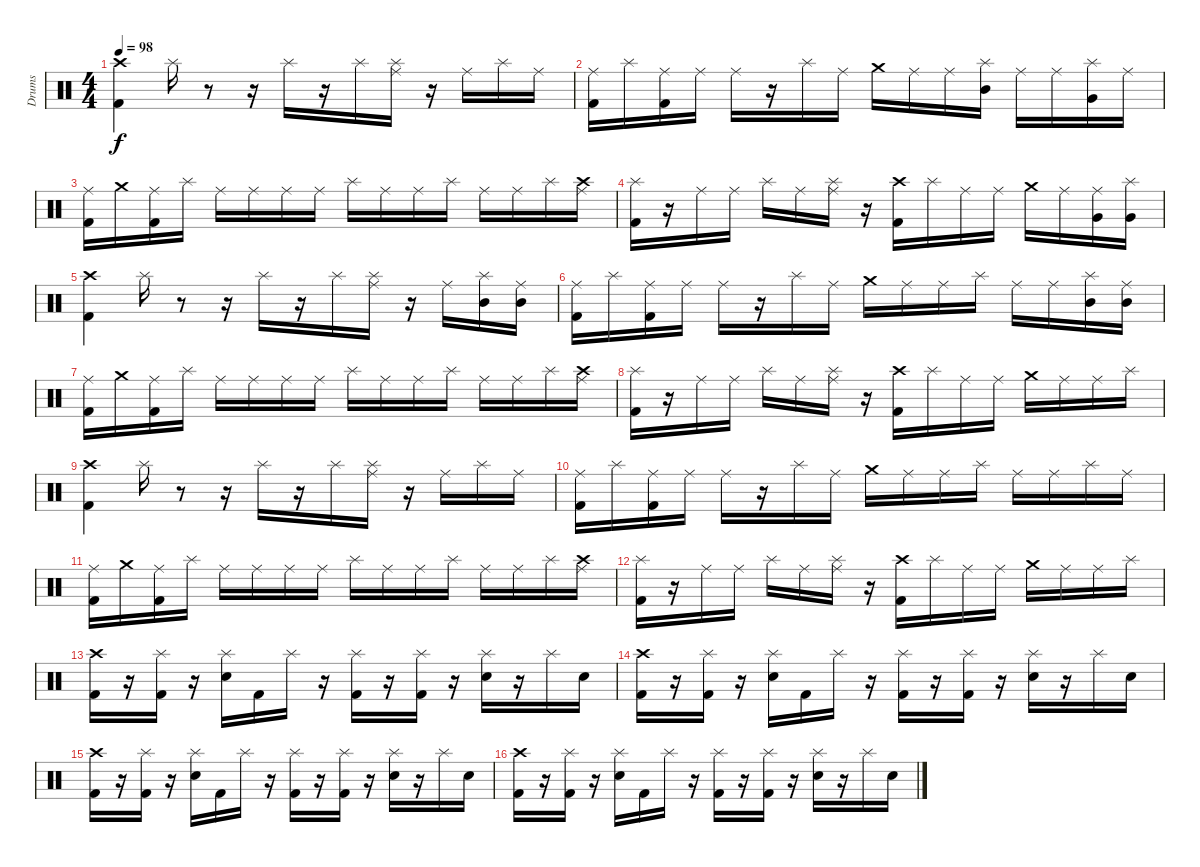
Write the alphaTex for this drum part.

\track ("Drums" "Drums") {instrument percussion}
\staff {score}
\articulation defaults
\ts (4 4)
\tempo 98
\clef neutral
\ks c
("Crash high (hit)" "Kick (hit) 2").4{dy f} "Splash (hit)".16 r.8 r.16 "Splash (hit)".16 r.16 "Splash (hit)".16 ("Ride (middle)" "Splash (hit)").16 r.16 "Ride (middle)".16 "Splash (hit)".16 "Ride (middle)".16 |
("Ride (middle)" "Kick (hit) 2").16 "Splash (hit)".16 ("Ride (middle)" "Kick (hit) 2").16 "Ride (middle)".16 "Ride (middle)".16 r.16 "Splash (hit)".16 "Ride (middle)".16 "Crash medium (hit)".16 "Ride (middle)".16 "Ride (middle)".16 ("Mid Tom (hit)" "Splash (hit)").16 "Ride (middle)".16 "Ride (middle)".16 ("Very Low Tom (hit)" "Splash (hit)").16 "Ride (middle)".16 |
("Ride (middle)" "Kick (hit) 2").16 "Crash medium (hit)".16 ("Ride (middle)" "Kick (hit) 2").16 "Splash (hit)".16 "Ride (middle)".16 "Ride (middle)".16 "Ride (middle)".16 "Ride (middle)".16 "Splash (hit)".16 "Ride (middle)".16 "Ride (middle)".16 "Splash (hit)".16 "Ride (middle)".16 "Ride (middle)".16 "Splash (hit)".16 ("Ride (middle)" "Crash high (hit)").16 |
("Splash (hit)" "Kick (hit) 2").16 r.16 "Ride (middle)".16 "Ride (middle)".16 "Splash (hit)".16 "Ride (middle)".16 ("Splash (hit)" "Ride (middle)").16 r.16 ("Crash high (hit)" "Kick (hit) 2").16 "Splash (hit)".16 "Ride (middle)".16 "Ride (middle)".16 "Crash medium (hit)".16 "Ride (middle)".16 ("Very Low Tom (hit)" "Ride (middle)").16 ("Very Low Tom (hit)" "Splash (hit)").16 |
("Crash high (hit)" "Kick (hit) 2").4 "Splash (hit)".16 r.8 r.16 "Splash (hit)".16 r.16 "Splash (hit)".16 ("Ride (middle)" "Splash (hit)").16 r.16 "Ride (middle)".16 ("Mid Tom (hit)" "Splash (hit)").16 ("Mid Tom (hit)" "Ride (middle)").16 |
("Ride (middle)" "Kick (hit) 2").16 "Splash (hit)".16 ("Ride (middle)" "Kick (hit) 2").16 "Ride (middle)".16 "Ride (middle)".16 r.16 "Splash (hit)".16 "Ride (middle)".16 "Crash medium (hit)".16 "Ride (middle)".16 "Ride (middle)".16 "Splash (hit)".16 "Ride (middle)".16 "Ride (middle)".16 ("Mid Tom (hit)" "Splash (hit)").16 ("Mid Tom (hit)" "Ride (middle)").16 |
("Ride (middle)" "Kick (hit) 2").16 "Crash medium (hit)".16 ("Ride (middle)" "Kick (hit) 2").16 "Splash (hit)".16 "Ride (middle)".16 "Ride (middle)".16 "Ride (middle)".16 "Ride (middle)".16 "Splash (hit)".16 "Ride (middle)".16 "Ride (middle)".16 "Splash (hit)".16 "Ride (middle)".16 "Ride (middle)".16 "Splash (hit)".16 ("Ride (middle)" "Crash high (hit)").16 |
("Splash (hit)" "Kick (hit) 2").16 r.16 "Ride (middle)".16 "Ride (middle)".16 "Splash (hit)".16 "Ride (middle)".16 ("Splash (hit)" "Ride (middle)").16 r.16 ("Crash high (hit)" "Kick (hit) 2").16 "Splash (hit)".16 "Ride (middle)".16 "Ride (middle)".16 "Crash medium (hit)".16 "Ride (middle)".16 "Ride (middle)".16 "Splash (hit)".16 |
("Crash high (hit)" "Kick (hit) 2").4 "Splash (hit)".16 r.8 r.16 "Splash (hit)".16 r.16 "Splash (hit)".16 ("Ride (middle)" "Splash (hit)").16 r.16 "Ride (middle)".16 "Splash (hit)".16 "Ride (middle)".16 |
("Ride (middle)" "Kick (hit) 2").16 "Splash (hit)".16 ("Ride (middle)" "Kick (hit) 2").16 "Ride (middle)".16 "Ride (middle)".16 r.16 "Splash (hit)".16 "Ride (middle)".16 "Crash medium (hit)".16 "Ride (middle)".16 "Ride (middle)".16 "Splash (hit)".16 "Ride (middle)".16 "Ride (middle)".16 "Splash (hit)".16 "Ride (middle)".16 |
("Ride (middle)" "Kick (hit) 2").16 "Crash medium (hit)".16 ("Ride (middle)" "Kick (hit) 2").16 "Splash (hit)".16 "Ride (middle)".16 "Ride (middle)".16 "Ride (middle)".16 "Ride (middle)".16 "Splash (hit)".16 "Ride (middle)".16 "Ride (middle)".16 "Splash (hit)".16 "Ride (middle)".16 "Ride (middle)".16 "Splash (hit)".16 ("Ride (middle)" "Crash high (hit)").16 |
("Splash (hit)" "Kick (hit) 2").16 r.16 "Ride (middle)".16 "Ride (middle)".16 "Splash (hit)".16 "Ride (middle)".16 ("Splash (hit)" "Ride (middle)").16 r.16 ("Crash high (hit)" "Kick (hit) 2").16 "Splash (hit)".16 "Ride (middle)".16 "Ride (middle)".16 "Crash medium (hit)".16 "Ride (middle)".16 "Ride (middle)".16 "Splash (hit)".16 |
("Crash high (hit)" "Kick (hit) 2").16{volume 16} r.16 ("Splash (hit)" "Kick (hit) 2").16 r.16 ("Splash (hit)" "Electric Snare (hit)").16 "Kick (hit) 2".16 "Splash (hit)".16 r.16 ("Splash (hit)" "Kick (hit) 2").16 r.16 ("Splash (hit)" "Kick (hit) 2").16 r.16 ("Splash (hit)" "Electric Snare (hit)").16 r.16 "Splash (hit)".16 "Electric Snare (hit)".16 |
("Crash high (hit)" "Kick (hit) 2").16 r.16 ("Splash (hit)" "Kick (hit) 2").16 r.16 ("Splash (hit)" "Electric Snare (hit)").16 "Kick (hit) 2".16 "Splash (hit)".16 r.16 ("Splash (hit)" "Kick (hit) 2").16 r.16 ("Splash (hit)" "Kick (hit) 2").16 r.16 ("Splash (hit)" "Electric Snare (hit)").16 r.16 "Splash (hit)".16 "Electric Snare (hit)".16 |
("Crash high (hit)" "Kick (hit) 2").16 r.16 ("Splash (hit)" "Kick (hit) 2").16 r.16 ("Splash (hit)" "Electric Snare (hit)").16 "Kick (hit) 2".16 "Splash (hit)".16 r.16 ("Splash (hit)" "Kick (hit) 2").16 r.16 ("Splash (hit)" "Kick (hit) 2").16 r.16 ("Splash (hit)" "Electric Snare (hit)").16 r.16 "Splash (hit)".16 "Electric Snare (hit)".16 |
("Crash high (hit)" "Kick (hit) 2").16 r.16 ("Splash (hit)" "Kick (hit) 2").16 r.16 ("Splash (hit)" "Electric Snare (hit)").16 "Kick (hit) 2".16 "Splash (hit)".16 r.16 ("Splash (hit)" "Kick (hit) 2").16 r.16 ("Splash (hit)" "Kick (hit) 2").16 r.16 ("Splash (hit)" "Electric Snare (hit)").16 r.16 "Splash (hit)".16 "Electric Snare (hit)".16
